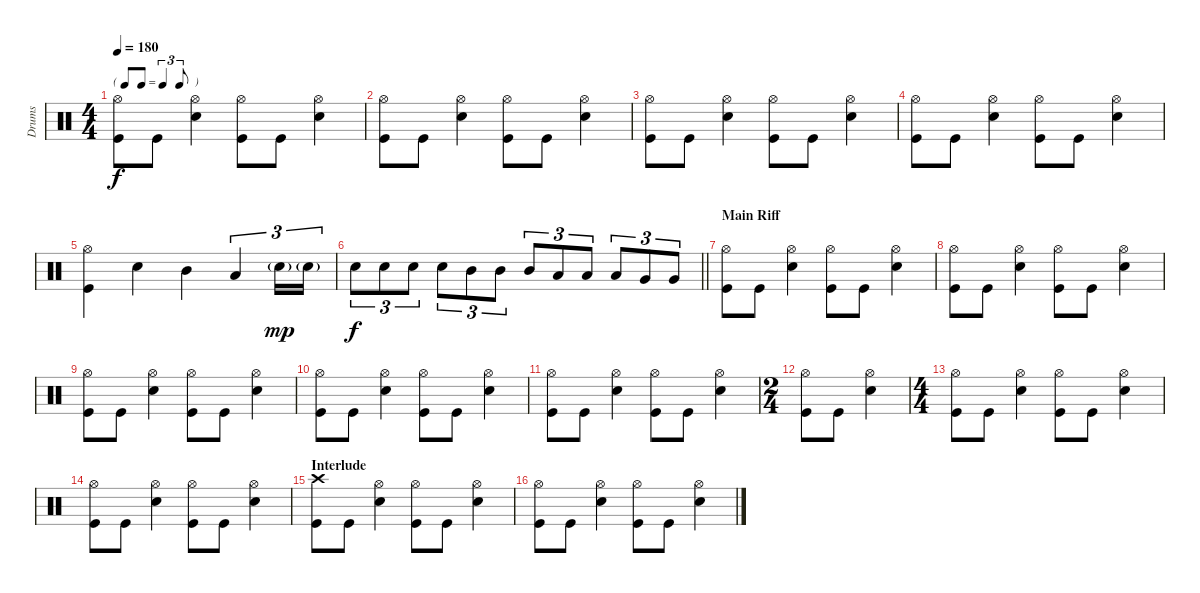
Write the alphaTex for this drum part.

\track ("Drums" "Drums") {instrument percussion}
\staff {score}
\articulation defaults
\ts (4 4)
\tf triplet8th
\tempo 180
\clef neutral
\ks c
("Hi-Hat (open)" "Kick (hit)").8{dy f} "Kick (hit)".8 ("Hi-Hat (open)" "Electric Snare (hit)").4 ("Hi-Hat (open)" "Kick (hit)").8 "Kick (hit)".8 ("Hi-Hat (open)" "Electric Snare (hit)").4 |
("Hi-Hat (open)" "Kick (hit)").8 "Kick (hit)".8 ("Hi-Hat (open)" "Electric Snare (hit)").4 ("Hi-Hat (open)" "Kick (hit)").8 "Kick (hit)".8 ("Hi-Hat (open)" "Electric Snare (hit)").4 |
("Hi-Hat (open)" "Kick (hit)").8 "Kick (hit)".8 ("Hi-Hat (open)" "Electric Snare (hit)").4 ("Hi-Hat (open)" "Kick (hit)").8 "Kick (hit)".8 ("Hi-Hat (open)" "Electric Snare (hit)").4 |
("Hi-Hat (open)" "Kick (hit)").8 "Kick (hit)".8 ("Hi-Hat (open)" "Electric Snare (hit)").4 ("Hi-Hat (open)" "Kick (hit)").8 "Kick (hit)".8 ("Hi-Hat (open)" "Electric Snare (hit)").4 |
("Hi-Hat (open)" "Kick (hit)").4 "Electric Snare (hit)".4 "Mid Tom (hit)".4 "Low Tom (hit)".4{tu (3 2)} "Electric Snare (hit)"{g}.16{tu (3 2) dy mp} "Electric Snare (hit)"{g}.16{tu (3 2)} |
\barLineRight lightlight "Electric Snare (hit)".8{tu (3 2) dy f} "Electric Snare (hit)".8{tu (3 2)} "Electric Snare (hit)".8{tu (3 2)} "Electric Snare (hit)".8{tu (3 2)} "Mid Tom (hit)".8{tu (3 2)} "Mid Tom (hit)".8{tu (3 2)} "Mid Tom (hit)".8{tu (3 2)} "Low Tom (hit)".8{tu (3 2)} "Low Tom (hit)".8{tu (3 2)} "Low Tom (hit)".8{tu (3 2)} "Very Low Tom (hit)".8{tu (3 2)} "Very Low Tom (hit)".8{tu (3 2)}
|
\section ("" "Main Riff")
("Hi-Hat (open)" "Kick (hit)").8 "Kick (hit)".8 ("Hi-Hat (open)" "Electric Snare (hit)").4 ("Hi-Hat (open)" "Kick (hit)").8 "Kick (hit)".8 ("Hi-Hat (open)" "Electric Snare (hit)").4 |
("Hi-Hat (open)" "Kick (hit)").8 "Kick (hit)".8 ("Hi-Hat (open)" "Electric Snare (hit)").4 ("Hi-Hat (open)" "Kick (hit)").8 "Kick (hit)".8 ("Hi-Hat (open)" "Electric Snare (hit)").4 |
("Hi-Hat (open)" "Kick (hit)").8 "Kick (hit)".8 ("Hi-Hat (open)" "Electric Snare (hit)").4 ("Hi-Hat (open)" "Kick (hit)").8 "Kick (hit)".8 ("Hi-Hat (open)" "Electric Snare (hit)").4 |
("Hi-Hat (open)" "Kick (hit)").8 "Kick (hit)".8 ("Hi-Hat (open)" "Electric Snare (hit)").4 ("Hi-Hat (open)" "Kick (hit)").8 "Kick (hit)".8 ("Hi-Hat (open)" "Electric Snare (hit)").4 |
("Hi-Hat (open)" "Kick (hit)").8 "Kick (hit)".8 ("Hi-Hat (open)" "Electric Snare (hit)").4 ("Hi-Hat (open)" "Kick (hit)").8 "Kick (hit)".8 ("Hi-Hat (open)" "Electric Snare (hit)").4 |
\ts (2 4)
("Hi-Hat (open)" "Kick (hit)").8 "Kick (hit)".8 ("Hi-Hat (open)" "Electric Snare (hit)").4 |
\ts (4 4)
("Hi-Hat (open)" "Kick (hit)").8 "Kick (hit)".8 ("Hi-Hat (open)" "Electric Snare (hit)").4 ("Hi-Hat (open)" "Kick (hit)").8 "Kick (hit)".8 ("Hi-Hat (open)" "Electric Snare (hit)").4 |
("Hi-Hat (open)" "Kick (hit)").8 "Kick (hit)".8 ("Hi-Hat (open)" "Electric Snare (hit)").4 ("Hi-Hat (open)" "Kick (hit)").8 "Kick (hit)".8 ("Hi-Hat (open)" "Electric Snare (hit)").4 |
\section ("" "Interlude")
("Crash high (hit)" "Kick (hit)").8 "Kick (hit)".8 ("Hi-Hat (open)" "Electric Snare (hit)").4 ("Hi-Hat (open)" "Kick (hit)").8 "Kick (hit)".8 ("Hi-Hat (open)" "Electric Snare (hit)").4 |
("Hi-Hat (open)" "Kick (hit)").8 "Kick (hit)".8 ("Hi-Hat (open)" "Electric Snare (hit)").4 ("Hi-Hat (open)" "Kick (hit)").8 "Kick (hit)".8 ("Hi-Hat (open)" "Electric Snare (hit)").4
